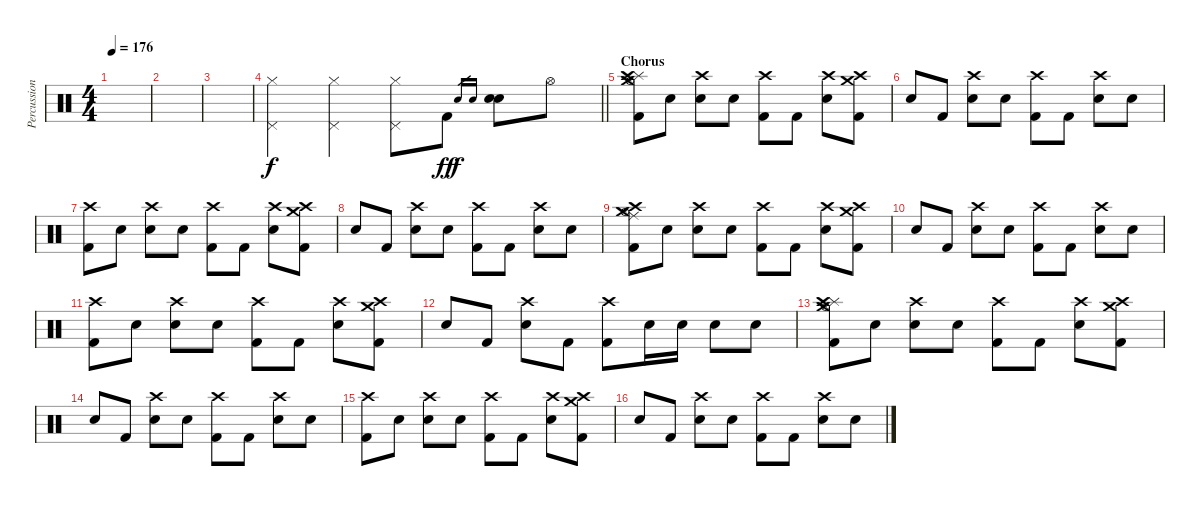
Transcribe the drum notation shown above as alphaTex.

\track ("Percussion" "Percussion") {instrument percussion}
\staff {score}
\articulation defaults
\ts (4 4)
\tempo 176
\clef neutral
\ks c
|
|
|
\barLineRight lightlight
("Pedal Hi-Hat (hit)" "Hi-Hat (closed)").4 ("Pedal Hi-Hat (hit)" "Hi-Hat (closed)").4 ("Pedal Hi-Hat (hit)" "Hi-Hat (closed)").8 "Kick (hit) 2".8{dy ff} "Electric Snare (hit)".16{gr dy f} "Electric Snare (hit)".16{gr} ("Electric Snare (hit)" "Electric Snare (hit)").8 "Hi-Hat (open)".8 |
\section ("" "Chorus")
("Splash (hit)" "Hi-Hat (open)" "Crash medium (hit)" "Crash high (hit)" "Kick (hit) 2").8 "Snare (hit)"{x}.8 ("Crash high (hit)" "Electric Snare (hit)").8 "Snare (hit)"{x}.8 ("Crash high (hit)" "Kick (hit) 2").8 "Kick (hit) 2".8 ("Crash high (hit)" "Electric Snare (hit)").8 ("Crash high (hit)" "Crash medium (hit)" "Kick (hit) 2").8 |
"Snare (hit)"{x}.8 "Kick (hit) 2".8 ("Crash high (hit)" "Electric Snare (hit)").8 "Snare (hit)"{x}.8 ("Crash high (hit)" "Kick (hit) 2").8 "Kick (hit) 2".8 ("Crash high (hit)" "Electric Snare (hit)").8 "Snare (hit)"{x}.8 |
("Crash high (hit)" "Kick (hit) 2").8 "Snare (hit)"{x}.8 ("Crash high (hit)" "Electric Snare (hit)").8 "Snare (hit)"{x}.8 ("Crash high (hit)" "Kick (hit) 2").8 "Kick (hit) 2".8 ("Crash high (hit)" "Electric Snare (hit)").8 ("Crash high (hit)" "Crash medium (hit)" "Kick (hit) 2").8 |
"Snare (hit)"{x}.8 "Kick (hit) 2".8 ("Crash high (hit)" "Electric Snare (hit)").8 "Snare (hit)"{x}.8 ("Crash high (hit)" "Kick (hit) 2").8 "Kick (hit) 2".8 ("Crash high (hit)" "Electric Snare (hit)").8 "Electric Snare (hit)".8 |
("Ride (middle)" "Hi-Hat (open)" "Crash medium (hit)" "Crash high (hit)" "Kick (hit) 2").8 "Snare (hit)"{x}.8 ("Crash high (hit)" "Electric Snare (hit)").8 "Snare (hit)"{x}.8 ("Crash high (hit)" "Kick (hit) 2").8 "Kick (hit) 2".8 ("Crash high (hit)" "Electric Snare (hit)").8 ("Crash high (hit)" "Crash medium (hit)" "Kick (hit) 2").8 |
"Snare (hit)"{x}.8 "Kick (hit) 2".8 ("Crash high (hit)" "Electric Snare (hit)").8 "Snare (hit)"{x}.8 ("Crash high (hit)" "Kick (hit) 2").8 "Kick (hit) 2".8 ("Crash high (hit)" "Electric Snare (hit)").8 "Snare (hit)"{x}.8 |
("Crash high (hit)" "Kick (hit) 2").8 "Snare (hit)"{x}.8 ("Crash high (hit)" "Electric Snare (hit)").8 "Snare (hit)"{x}.8 ("Crash high (hit)" "Kick (hit) 2").8 "Kick (hit) 2".8 ("Crash high (hit)" "Electric Snare (hit)").8 ("Crash high (hit)" "Crash medium (hit)" "Kick (hit) 2").8 |
"Snare (hit)"{x}.8 "Kick (hit) 2".8 ("Crash high (hit)" "Electric Snare (hit)").8 "Kick (hit) 2".8 ("Crash high (hit)" "Kick (hit) 2").8 "Electric Snare (hit)".16 "Electric Snare (hit)".16 "Electric Snare (hit)".8 "Electric Snare (hit)".8 |
("Splash (hit)" "Hi-Hat (open)" "Crash medium (hit)" "Crash high (hit)" "Kick (hit) 2").8 "Snare (hit)"{x}.8 ("Crash high (hit)" "Electric Snare (hit)").8 "Snare (hit)"{x}.8 ("Crash high (hit)" "Kick (hit) 2").8 "Kick (hit) 2".8 ("Crash high (hit)" "Electric Snare (hit)").8 ("Crash high (hit)" "Crash medium (hit)" "Kick (hit) 2").8 |
"Snare (hit)"{x}.8 "Kick (hit) 2".8 ("Crash high (hit)" "Electric Snare (hit)").8 "Snare (hit)"{x}.8 ("Crash high (hit)" "Kick (hit) 2").8 "Kick (hit) 2".8 ("Crash high (hit)" "Electric Snare (hit)").8 "Snare (hit)"{x}.8 |
("Crash high (hit)" "Kick (hit) 2").8 "Snare (hit)"{x}.8 ("Crash high (hit)" "Electric Snare (hit)").8 "Snare (hit)"{x}.8 ("Crash high (hit)" "Kick (hit) 2").8 "Kick (hit) 2".8 ("Crash high (hit)" "Electric Snare (hit)").8 ("Crash high (hit)" "Crash medium (hit)" "Kick (hit) 2").8 |
"Snare (hit)"{x}.8 "Kick (hit) 2".8 ("Crash high (hit)" "Electric Snare (hit)").8 "Snare (hit)"{x}.8 ("Crash high (hit)" "Kick (hit) 2").8 "Kick (hit) 2".8 ("Crash high (hit)" "Electric Snare (hit)").8 "Snare (hit)"{x}.8
